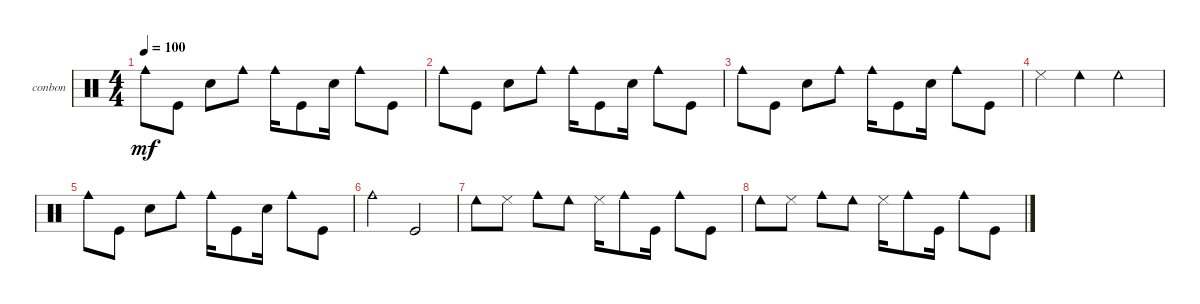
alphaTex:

\defaultSystemsLayout 4
\bracketExtendMode groupsimilarinstruments
\firstSystemTrackNameOrientation horizontal
\otherSystemsTrackNameOrientation horizontal
\track ("Cyro Baptista" "conbon") {instrument percussion}
\staff {score}
\articulation defaults
\ts (4 4)
\tempo 100
\clef neutral
\ks c "Cowbell medium (hit)".8{dy mf} "Kick (hit)".8 "Snare (hit) 2".8 "Cowbell medium (hit)".8 "Cowbell medium (hit)".16 "Kick (hit)".8 "Snare (hit) 2".16 "Cowbell medium (hit)".8 "Kick (hit)".8
|
"Cowbell medium (hit)".8 "Kick (hit)".8 "Snare (hit) 2".8 "Cowbell medium (hit)".8 "Cowbell medium (hit)".16 "Kick (hit)".8 "Snare (hit) 2".16 "Cowbell medium (hit)".8 "Kick (hit)".8 |
"Cowbell medium (hit)".8 "Kick (hit)".8 "Snare (hit) 2".8 "Cowbell medium (hit)".8 "Cowbell medium (hit)".16 "Kick (hit)".8 "Snare (hit) 2".16 "Cowbell medium (hit)".8 "Kick (hit)".8 |
"Cowbell low (tip)".4 "Cowbell low (hit)".4 "Cowbell low (hit)".2 |
"Cowbell medium (hit)".8 "Kick (hit)".8 "Snare (hit) 2".8 "Cowbell medium (hit)".8 "Cowbell medium (hit)".16 "Kick (hit)".8 "Snare (hit) 2".16 "Cowbell medium (hit)".8 "Kick (hit)".8 |
"Cowbell medium (hit)".2 "Kick (hit)".2 |
"Cowbell low (hit)".8 "Cowbell low (tip)".8 "Cowbell medium (hit)".8 "Cowbell low (hit)".8 "Cowbell low (tip)".16 "Cowbell medium (hit)".8 "Kick (hit)".16 "Cowbell medium (hit)".8 "Kick (hit)".8 |
"Cowbell low (hit)".8 "Cowbell low (tip)".8 "Cowbell medium (hit)".8 "Cowbell low (hit)".8 "Cowbell low (tip)".16 "Cowbell medium (hit)".8 "Kick (hit)".16 "Cowbell medium (hit)".8 "Kick (hit)".8
